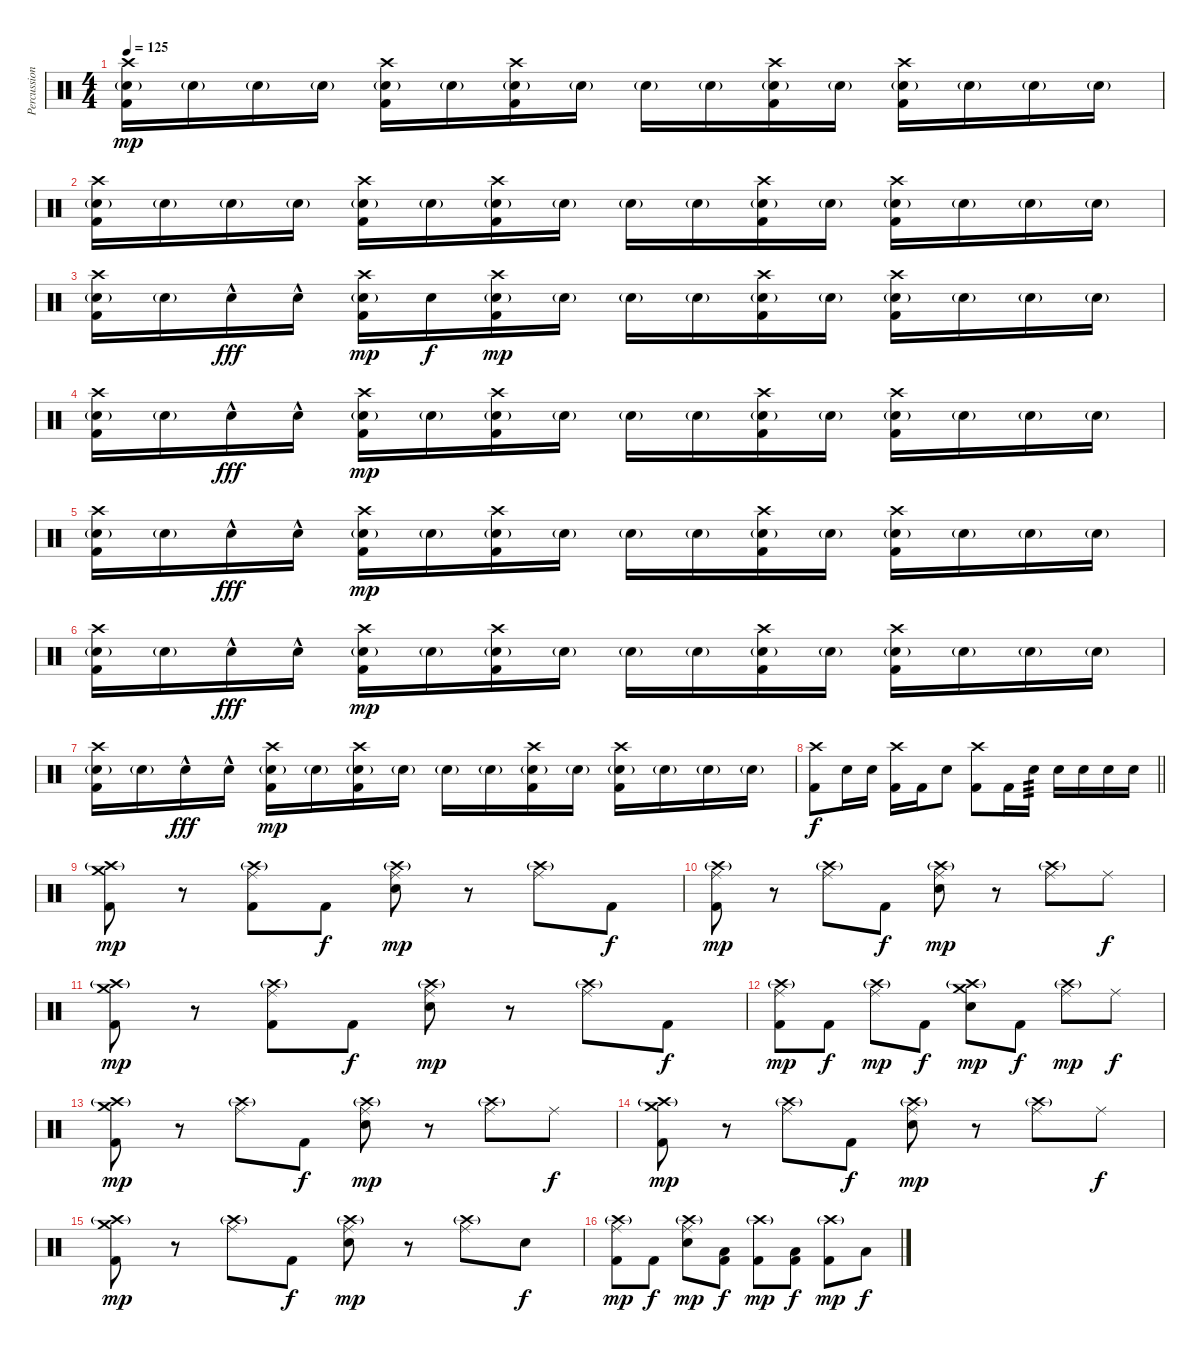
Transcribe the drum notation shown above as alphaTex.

\track ("Percussion" "Percussion") {instrument percussion}
\staff {score}
\articulation defaults
\ts (4 4)
\tempo 125
\clef neutral
\ks c
("Crash high (hit)" "Snare (hit) 2"{g} "Kick (hit) 2").16{dy mp} "Snare (hit) 2"{g}.16 "Snare (hit) 2"{g}.16 "Snare (hit) 2"{g}.16 ("Crash high (hit)" "Snare (hit) 2"{g} "Kick (hit) 2").16 "Snare (hit) 2"{g}.16 ("Crash high (hit)" "Snare (hit) 2"{g} "Kick (hit) 2").16 "Snare (hit) 2"{g}.16 "Snare (hit) 2"{g}.16 "Snare (hit) 2"{g}.16 ("Crash high (hit)" "Snare (hit) 2"{g} "Kick (hit) 2").16 "Snare (hit) 2"{g}.16 ("Crash high (hit)" "Snare (hit) 2"{g} "Kick (hit) 2").16 "Snare (hit) 2"{g}.16 "Snare (hit) 2"{g}.16 "Snare (hit) 2"{g}.16 |
("Crash high (hit)" "Snare (hit) 2"{g} "Kick (hit) 2").16 "Snare (hit) 2"{g}.16 "Snare (hit) 2"{g}.16 "Snare (hit) 2"{g}.16 ("Crash high (hit)" "Snare (hit) 2"{g} "Kick (hit) 2").16 "Snare (hit) 2"{g}.16 ("Crash high (hit)" "Snare (hit) 2"{g} "Kick (hit) 2").16 "Snare (hit) 2"{g}.16 "Snare (hit) 2"{g}.16 "Snare (hit) 2"{g}.16 ("Crash high (hit)" "Snare (hit) 2"{g} "Kick (hit) 2").16 "Snare (hit) 2"{g}.16 ("Crash high (hit)" "Snare (hit) 2"{g} "Kick (hit) 2").16 "Snare (hit) 2"{g}.16 "Snare (hit) 2"{g}.16 "Snare (hit) 2"{g}.16 |
("Crash high (hit)" "Snare (hit) 2"{g} "Kick (hit) 2").16 "Snare (hit) 2"{g}.16 "Snare (hit) 2"{hac}.16{dy fff} "Snare (hit) 2"{hac}.16 ("Crash high (hit)" "Snare (hit) 2"{g} "Kick (hit) 2").16{dy mp} "Snare (hit) 2".16{dy f} ("Crash high (hit)" "Snare (hit) 2"{g} "Kick (hit) 2").16{dy mp} "Snare (hit) 2"{g}.16 "Snare (hit) 2"{g}.16 "Snare (hit) 2"{g}.16 ("Crash high (hit)" "Snare (hit) 2"{g} "Kick (hit) 2").16 "Snare (hit) 2"{g}.16 ("Crash high (hit)" "Snare (hit) 2"{g} "Kick (hit) 2").16 "Snare (hit) 2"{g}.16 "Snare (hit) 2"{g}.16 "Snare (hit) 2"{g}.16 |
("Crash high (hit)" "Snare (hit) 2"{g} "Kick (hit) 2").16 "Snare (hit) 2"{g}.16 "Snare (hit) 2"{hac}.16{dy fff} "Snare (hit) 2"{hac}.16 ("Crash high (hit)" "Snare (hit) 2"{g} "Kick (hit) 2").16{dy mp} "Snare (hit) 2"{g}.16 ("Crash high (hit)" "Snare (hit) 2"{g} "Kick (hit) 2").16 "Snare (hit) 2"{g}.16 "Snare (hit) 2"{g}.16 "Snare (hit) 2"{g}.16 ("Crash high (hit)" "Snare (hit) 2"{g} "Kick (hit) 2").16 "Snare (hit) 2"{g}.16 ("Crash high (hit)" "Snare (hit) 2"{g} "Kick (hit) 2").16 "Snare (hit) 2"{g}.16 "Snare (hit) 2"{g}.16 "Snare (hit) 2"{g}.16 |
("Crash high (hit)" "Snare (hit) 2"{g} "Kick (hit) 2").16 "Snare (hit) 2"{g}.16 "Snare (hit) 2"{hac}.16{dy fff} "Snare (hit) 2"{hac}.16 ("Crash high (hit)" "Snare (hit) 2"{g} "Kick (hit) 2").16{dy mp} "Snare (hit) 2"{g}.16 ("Crash high (hit)" "Snare (hit) 2"{g} "Kick (hit) 2").16 "Snare (hit) 2"{g}.16 "Snare (hit) 2"{g}.16 "Snare (hit) 2"{g}.16 ("Crash high (hit)" "Snare (hit) 2"{g} "Kick (hit) 2").16 "Snare (hit) 2"{g}.16 ("Crash high (hit)" "Snare (hit) 2"{g} "Kick (hit) 2").16 "Snare (hit) 2"{g}.16 "Snare (hit) 2"{g}.16 "Snare (hit) 2"{g}.16 |
("Crash high (hit)" "Snare (hit) 2"{g} "Kick (hit) 2").16 "Snare (hit) 2"{g}.16 "Snare (hit) 2"{hac}.16{dy fff} "Snare (hit) 2"{hac}.16 ("Crash high (hit)" "Snare (hit) 2"{g} "Kick (hit) 2").16{dy mp} "Snare (hit) 2"{g}.16 ("Crash high (hit)" "Snare (hit) 2"{g} "Kick (hit) 2").16 "Snare (hit) 2"{g}.16 "Snare (hit) 2"{g}.16 "Snare (hit) 2"{g}.16 ("Crash high (hit)" "Snare (hit) 2"{g} "Kick (hit) 2").16 "Snare (hit) 2"{g}.16 ("Crash high (hit)" "Snare (hit) 2"{g} "Kick (hit) 2").16 "Snare (hit) 2"{g}.16 "Snare (hit) 2"{g}.16 "Snare (hit) 2"{g}.16 |
("Crash high (hit)" "Snare (hit) 2"{g} "Kick (hit) 2").16 "Snare (hit) 2"{g}.16 "Snare (hit) 2"{hac}.16{dy fff} "Snare (hit) 2"{hac}.16 ("Crash high (hit)" "Snare (hit) 2"{g} "Kick (hit) 2").16{dy mp} "Snare (hit) 2"{g}.16 ("Crash high (hit)" "Snare (hit) 2"{g} "Kick (hit) 2").16 "Snare (hit) 2"{g}.16 "Snare (hit) 2"{g}.16 "Snare (hit) 2"{g}.16 ("Crash high (hit)" "Snare (hit) 2"{g} "Kick (hit) 2").16 "Snare (hit) 2"{g}.16 ("Crash high (hit)" "Snare (hit) 2"{g} "Kick (hit) 2").16 "Snare (hit) 2"{g}.16 "Snare (hit) 2"{g}.16 "Snare (hit) 2"{g}.16 |
\barLineRight lightlight
("Crash high (hit)" "Kick (hit) 2").8{dy f} "Snare (hit) 2".16 "Snare (hit) 2".16 ("Crash high (hit)" "Kick (hit) 2").16 "Kick (hit) 2".16 "Snare (hit) 2".8 ("Crash high (hit)" "Kick (hit) 2").8 "Kick (hit) 2".16 "Snare (hit) 2".16{tp 3} "Snare (hit) 2".16 "Snare (hit) 2".16 "Snare (hit) 2".16 "Snare (hit) 2".16 |
("Crash medium (hit)" "Crash high (hit)"{g} "Kick (hit) 2").8{dy mp} r.8 ("Ride (middle)" "Crash high (hit)"{g} "Kick (hit) 2").8 "Kick (hit) 2".8{dy f} ("Ride (middle)" "Crash high (hit)"{g} "Snare (hit) 2").8{dy mp} r.8 ("Ride (middle)" "Crash high (hit)"{g}).8 "Kick (hit) 2".8{dy f} |
("Ride (middle)" "Crash high (hit)"{g} "Kick (hit) 2").8{dy mp} r.8 ("Ride (middle)" "Crash high (hit)"{g}).8 "Kick (hit) 2".8{dy f} ("Ride (middle)" "Crash high (hit)"{g} "Snare (hit) 2").8{dy mp} r.8 ("Ride (middle)" "Crash high (hit)"{g}).8 "Ride (middle)".8{dy f} |
("Crash medium (hit)" "Crash high (hit)"{g} "Kick (hit) 2").8{dy mp} r.8 ("Ride (middle)" "Crash high (hit)"{g} "Kick (hit) 2").8 "Kick (hit) 2".8{dy f} ("Ride (middle)" "Crash high (hit)"{g} "Snare (hit) 2").8{dy mp} r.8 ("Ride (middle)" "Crash high (hit)"{g}).8 "Kick (hit) 2".8{dy f} |
("Ride (middle)" "Crash high (hit)"{g} "Kick (hit) 2").8{dy mp} "Kick (hit) 2".8{dy f} ("Ride (middle)" "Crash high (hit)"{g}).8{dy mp} "Kick (hit) 2".8{dy f} ("Crash medium (hit)" "Crash high (hit)"{g} "Snare (hit) 2").8{dy mp} "Kick (hit) 2".8{dy f} ("Ride (middle)" "Crash high (hit)"{g}).8{dy mp} "Ride (middle)".8{dy f} |
("Crash medium (hit)" "Crash high (hit)"{g} "Kick (hit) 2").8{dy mp} r.8 ("Ride (middle)" "Crash high (hit)"{g}).8 "Kick (hit) 2".8{dy f} ("Ride (middle)" "Crash high (hit)"{g} "Snare (hit) 2").8{dy mp} r.8 ("Ride (middle)" "Crash high (hit)"{g}).8 "Ride (middle)".8{dy f} |
("Crash medium (hit)" "Crash high (hit)"{g} "Kick (hit) 2").8{dy mp} r.8 ("Ride (middle)" "Crash high (hit)"{g}).8 "Kick (hit) 2".8{dy f} ("Ride (middle)" "Crash high (hit)"{g} "Snare (hit) 2").8{dy mp} r.8 ("Ride (middle)" "Crash high (hit)"{g}).8 "Ride (middle)".8{dy f} |
("Crash medium (hit)" "Crash high (hit)"{g} "Kick (hit) 2").8{dy mp} r.8 ("Ride (middle)" "Crash high (hit)"{g}).8 "Kick (hit) 2".8{dy f} ("Ride (middle)" "Crash high (hit)"{g} "Snare (hit) 2").8{dy mp} r.8 ("Ride (middle)" "Crash high (hit)"{g}).8 "Snare (hit) 2".8{dy f} |
("Ride (middle)" "Crash high (hit)"{g} "Kick (hit) 2").8{dy mp} "Kick (hit) 2".8{dy f} ("Ride (middle)" "Crash high (hit)"{g} "Snare (hit) 2").8{dy mp} ("Low Floor Tom (hit)" "Kick (hit) 2").8{dy f} ("Crash high (hit)"{g} "Kick (hit) 2").8{dy mp} ("Low Floor Tom (hit)" "Kick (hit) 2").8{dy f} ("Crash high (hit)"{g} "Kick (hit) 2").8{dy mp} "Low Tom (hit)".8{dy f}
